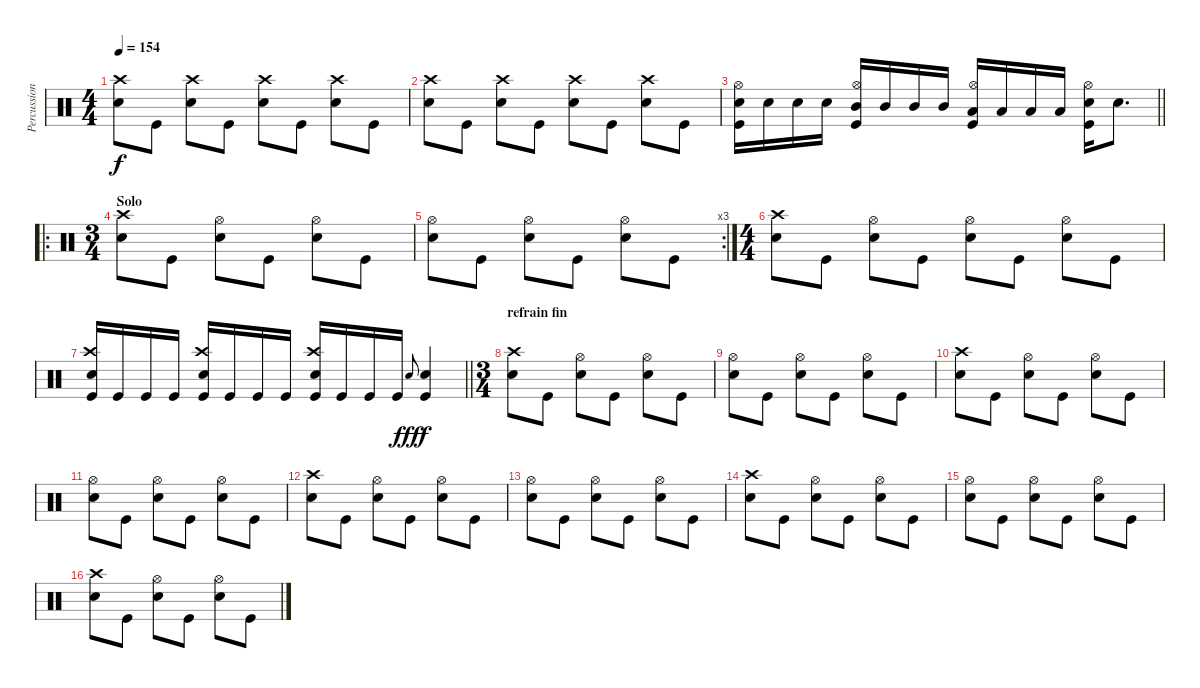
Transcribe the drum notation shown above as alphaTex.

\track ("Percussions" "Percussion") {instrument percussion}
\staff {score}
\articulation defaults
\ts (4 4)
\tempo 154
\clef neutral
\ks c
("Snare (hit) 2" "Crash high (hit)").8{dy f} "Kick (hit)".8 ("Snare (hit) 2" "Crash high (hit)").8 "Kick (hit)".8 ("Snare (hit) 2" "Crash high (hit)").8 "Kick (hit)".8 ("Snare (hit) 2" "Crash high (hit)").8 "Kick (hit)".8 |
("Snare (hit) 2" "Crash high (hit)").8 "Kick (hit)".8 ("Snare (hit) 2" "Crash high (hit)").8 "Kick (hit)".8 ("Snare (hit) 2" "Crash high (hit)").8 "Kick (hit)".8 ("Snare (hit) 2" "Crash high (hit)").8 "Kick (hit)".8 |
\barLineRight lightlight
("Kick (hit)" "Snare (hit) 2" "Hi-Hat (open)").16 "Snare (hit) 2".16 "Snare (hit) 2".16 "Snare (hit) 2".16 ("Mid Tom (hit)" "Hi-Hat (open)" "Kick (hit)").16 "Mid Tom (hit)".16 "Mid Tom (hit)".16 "Mid Tom (hit)".16 ("Hi-Hat (open)" "Low Tom (hit)" "Kick (hit)").16 "Low Tom (hit)".16 "Low Tom (hit)".16 "Low Tom (hit)".16 ("Snare (hit) 2" "Hi-Hat (open)" "Kick (hit)").16 "Snare (hit) 2".8{d} |
\ro
\ts (3 4)
\section ("" "Solo")
("Snare (hit) 2" "Crash high (hit)").8 "Kick (hit)".8 ("Snare (hit) 2" "Hi-Hat (open)").8 "Kick (hit)".8 ("Snare (hit) 2" "Hi-Hat (open)").8 "Kick (hit)".8 |
\rc 3
("Snare (hit) 2" "Hi-Hat (open)").8 "Kick (hit)".8 ("Snare (hit) 2" "Hi-Hat (open)").8 "Kick (hit)".8 ("Snare (hit) 2" "Hi-Hat (open)").8 "Kick (hit)".8 |
\ts (4 4)
("Snare (hit) 2" "Crash high (hit)").8 "Kick (hit)".8 ("Snare (hit) 2" "Hi-Hat (open)").8 "Kick (hit)".8 ("Snare (hit) 2" "Hi-Hat (open)").8 "Kick (hit)".8 ("Snare (hit) 2" "Hi-Hat (open)").8 "Kick (hit)".8 |
\barLineRight lightlight
("Snare (hit) 2" "Kick (hit)" "Crash high (hit)").16 "Kick (hit)".16 "Kick (hit)".16 "Kick (hit)".16 ("Snare (hit) 2" "Kick (hit)" "Crash high (hit)").16 "Kick (hit)".16 "Kick (hit)".16 "Kick (hit)".16 ("Snare (hit) 2" "Kick (hit)" "Crash high (hit)").16 "Kick (hit)".16 "Kick (hit)".16 "Kick (hit)".16 "Snare (hit) 2".8{gr onbeat dy fff} ("Kick (hit)" "Snare (hit) 2").4{dy f} |
\ts (3 4)
\section ("" "refrain fin")
("Snare (hit) 2" "Crash high (hit)").8 "Kick (hit)".8 ("Snare (hit) 2" "Hi-Hat (open)").8 "Kick (hit)".8 ("Snare (hit) 2" "Hi-Hat (open)").8 "Kick (hit)".8 |
("Snare (hit) 2" "Hi-Hat (open)").8 "Kick (hit)".8 ("Snare (hit) 2" "Hi-Hat (open)").8 "Kick (hit)".8 ("Snare (hit) 2" "Hi-Hat (open)").8 "Kick (hit)".8 |
("Snare (hit) 2" "Crash high (hit)").8 "Kick (hit)".8 ("Snare (hit) 2" "Hi-Hat (open)").8 "Kick (hit)".8 ("Snare (hit) 2" "Hi-Hat (open)").8 "Kick (hit)".8 |
("Snare (hit) 2" "Hi-Hat (open)").8 "Kick (hit)".8 ("Snare (hit) 2" "Hi-Hat (open)").8 "Kick (hit)".8 ("Snare (hit) 2" "Hi-Hat (open)").8 "Kick (hit)".8 |
("Snare (hit) 2" "Crash high (hit)").8 "Kick (hit)".8 ("Snare (hit) 2" "Hi-Hat (open)").8 "Kick (hit)".8 ("Snare (hit) 2" "Hi-Hat (open)").8 "Kick (hit)".8 |
("Snare (hit) 2" "Hi-Hat (open)").8 "Kick (hit)".8 ("Snare (hit) 2" "Hi-Hat (open)").8 "Kick (hit)".8 ("Snare (hit) 2" "Hi-Hat (open)").8 "Kick (hit)".8 |
("Snare (hit) 2" "Crash high (hit)").8 "Kick (hit)".8 ("Snare (hit) 2" "Hi-Hat (open)").8 "Kick (hit)".8 ("Snare (hit) 2" "Hi-Hat (open)").8 "Kick (hit)".8 |
("Snare (hit) 2" "Hi-Hat (open)").8 "Kick (hit)".8 ("Snare (hit) 2" "Hi-Hat (open)").8 "Kick (hit)".8 ("Snare (hit) 2" "Hi-Hat (open)").8 "Kick (hit)".8 |
("Snare (hit) 2" "Crash high (hit)").8 "Kick (hit)".8 ("Snare (hit) 2" "Hi-Hat (open)").8 "Kick (hit)".8 ("Snare (hit) 2" "Hi-Hat (open)").8 "Kick (hit)".8
